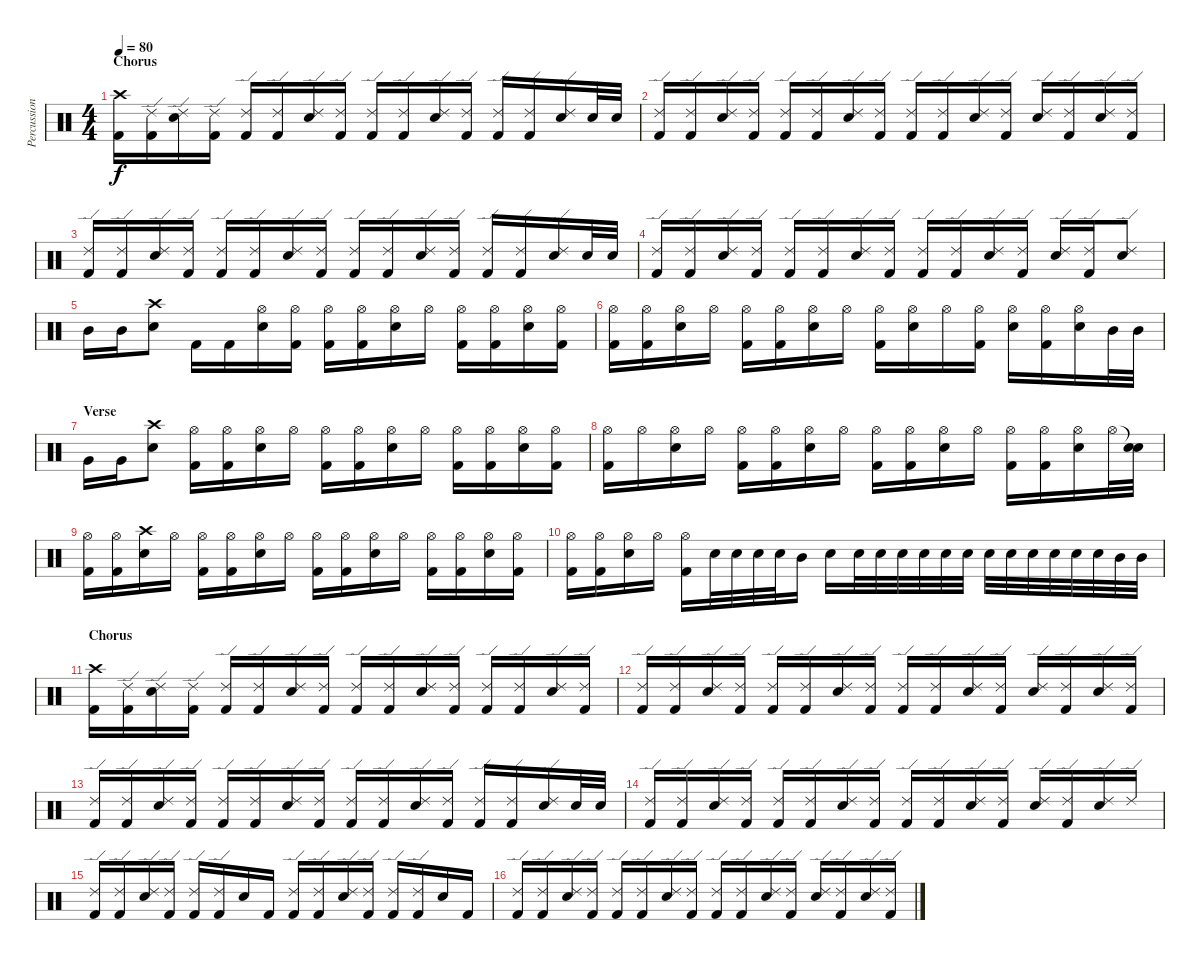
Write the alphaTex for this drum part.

\track ("Percussion" "Percussion") {instrument percussion}
\staff {score}
\articulation defaults
\ts (4 4)
\section ("" "Chorus")
\tempo 80
\clef neutral
\ks c
("Crash high (hit)" "Kick (hit) 2").16{dy f} ("Ride (edge) 2" "Kick (hit) 2").16 ("Ride (edge) 2" "Electric Snare (hit)").16 ("Ride (edge) 2" "Kick (hit) 2").16 ("Ride (edge) 2" "Kick (hit) 2").16 ("Ride (edge) 2" "Kick (hit) 2").16 ("Ride (edge) 2" "Electric Snare (hit)").16 ("Ride (edge) 2" "Kick (hit) 2").16 ("Ride (edge) 2" "Kick (hit) 2").16 ("Ride (edge) 2" "Kick (hit) 2").16 ("Ride (edge) 2" "Electric Snare (hit)").16 ("Ride (edge) 2" "Kick (hit) 2").16 ("Ride (edge) 2" "Kick (hit) 2").16 ("Ride (edge) 2" "Kick (hit) 2").16 ("Ride (edge) 2" "Electric Snare (hit)").16 "Electric Snare (hit)".32 "Electric Snare (hit)".32 |
("Ride (edge) 2" "Kick (hit) 2").16 ("Ride (edge) 2" "Kick (hit) 2").16 ("Ride (edge) 2" "Electric Snare (hit)").16 ("Ride (edge) 2" "Kick (hit) 2").16 ("Ride (edge) 2" "Kick (hit) 2").16 ("Ride (edge) 2" "Kick (hit) 2").16 ("Ride (edge) 2" "Electric Snare (hit)").16 ("Ride (edge) 2" "Kick (hit) 2").16 ("Ride (edge) 2" "Kick (hit) 2").16 ("Ride (edge) 2" "Kick (hit) 2").16 ("Ride (edge) 2" "Electric Snare (hit)").16 ("Ride (edge) 2" "Kick (hit) 2").16 ("Ride (edge) 2" "Electric Snare (hit)").16 ("Ride (edge) 2" "Kick (hit) 2").16 ("Ride (edge) 2" "Electric Snare (hit)").16 ("Ride (edge) 2" "Kick (hit) 2").16 |
("Ride (edge) 2" "Kick (hit) 2").16 ("Ride (edge) 2" "Kick (hit) 2").16 ("Ride (edge) 2" "Electric Snare (hit)").16 ("Ride (edge) 2" "Kick (hit) 2").16 ("Ride (edge) 2" "Kick (hit) 2").16 ("Ride (edge) 2" "Kick (hit) 2").16 ("Ride (edge) 2" "Electric Snare (hit)").16 ("Ride (edge) 2" "Kick (hit) 2").16 ("Ride (edge) 2" "Kick (hit) 2").16 ("Ride (edge) 2" "Kick (hit) 2").16 ("Ride (edge) 2" "Electric Snare (hit)").16 ("Ride (edge) 2" "Kick (hit) 2").16 ("Ride (edge) 2" "Kick (hit) 2").16 ("Ride (edge) 2" "Kick (hit) 2").16 ("Ride (edge) 2" "Electric Snare (hit)").16 "Electric Snare (hit)".32 "Electric Snare (hit)".32 |
("Ride (edge) 2" "Kick (hit) 2").16 ("Ride (edge) 2" "Kick (hit) 2").16 ("Ride (edge) 2" "Electric Snare (hit)").16 ("Ride (edge) 2" "Kick (hit) 2").16 ("Ride (edge) 2" "Kick (hit) 2").16 ("Ride (edge) 2" "Kick (hit) 2").16 ("Ride (edge) 2" "Electric Snare (hit)").16 ("Ride (edge) 2" "Kick (hit) 2").16 ("Ride (edge) 2" "Kick (hit) 2").16 ("Ride (edge) 2" "Kick (hit) 2").16 ("Ride (edge) 2" "Electric Snare (hit)").16 ("Ride (edge) 2" "Kick (hit) 2").16 ("Ride (edge) 2" "Electric Snare (hit)").16 ("Ride (edge) 2" "Kick (hit) 2").16 ("Ride (edge) 2" "Electric Snare (hit)").8 |
"Mid Tom (hit)".16 "Mid Tom (hit)".16 ("Crash high (hit)" "Electric Snare (hit)").8 "Kick (hit) 2".16 "Kick (hit) 2".16 ("Hi-Hat (open)" "Electric Snare (hit)").16 ("Hi-Hat (open)" "Kick (hit) 2").16 ("Hi-Hat (open)" "Kick (hit) 2").16 ("Hi-Hat (open)" "Kick (hit) 2").16 ("Hi-Hat (open)" "Electric Snare (hit)").16 "Hi-Hat (open)".16 ("Hi-Hat (open)" "Kick (hit) 2").16 ("Hi-Hat (open)" "Kick (hit) 2").16 ("Hi-Hat (open)" "Electric Snare (hit)").16 ("Hi-Hat (open)" "Kick (hit) 2").16 |
("Hi-Hat (open)" "Kick (hit) 2").16 ("Hi-Hat (open)" "Kick (hit) 2").16 ("Hi-Hat (open)" "Electric Snare (hit)").16 "Hi-Hat (open)".16 ("Hi-Hat (open)" "Kick (hit) 2").16 ("Hi-Hat (open)" "Kick (hit) 2").16 ("Hi-Hat (open)" "Electric Snare (hit)").16 "Hi-Hat (open)".16 ("Hi-Hat (open)" "Kick (hit) 2").16 ("Hi-Hat (open)" "Electric Snare (hit)").16 "Hi-Hat (open)".16 ("Hi-Hat (open)" "Kick (hit) 2").16 ("Hi-Hat (open)" "Electric Snare (hit)").16 ("Hi-Hat (open)" "Kick (hit) 2").16 ("Hi-Hat (open)" "Electric Snare (hit)").16 "Mid Tom (hit)".32 "Mid Tom (hit)".32 |
\section ("" "Verse")
"Very Low Tom (hit)".16 "Very Low Tom (hit)".16 ("Crash high (hit)" "Electric Snare (hit)").8 ("Hi-Hat (open)" "Kick (hit) 2").16 ("Hi-Hat (open)" "Kick (hit) 2").16 ("Hi-Hat (open)" "Electric Snare (hit)").16 "Hi-Hat (open)".16 ("Hi-Hat (open)" "Kick (hit) 2").16 ("Hi-Hat (open)" "Kick (hit) 2").16 ("Hi-Hat (open)" "Electric Snare (hit)").16 "Hi-Hat (open)".16 ("Hi-Hat (open)" "Kick (hit) 2").16 ("Hi-Hat (open)" "Kick (hit) 2").16 ("Hi-Hat (open)" "Electric Snare (hit)").16 ("Hi-Hat (open)" "Kick (hit) 2").16 |
("Hi-Hat (open)" "Kick (hit) 2").16 "Hi-Hat (open)".16 ("Hi-Hat (open)" "Electric Snare (hit)").16 "Hi-Hat (open)".16 ("Hi-Hat (open)" "Kick (hit) 2").16 ("Hi-Hat (open)" "Kick (hit) 2").16 ("Hi-Hat (open)" "Electric Snare (hit)").16 "Hi-Hat (open)".16 ("Hi-Hat (open)" "Kick (hit) 2").16 ("Hi-Hat (open)" "Kick (hit) 2").16 ("Hi-Hat (open)" "Electric Snare (hit)").16 "Hi-Hat (open)".16 ("Hi-Hat (open)" "Kick (hit) 2").16 ("Hi-Hat (open)" "Kick (hit) 2").16 ("Hi-Hat (open)" "Electric Snare (hit)").16 "Hi-Hat (open)".32 ("Snare (hit)"{t} "Electric Snare (hit)").32 |
("Hi-Hat (open)" "Kick (hit) 2").16 ("Hi-Hat (open)" "Kick (hit) 2").16 ("Crash high (hit)" "Electric Snare (hit)").16 "Hi-Hat (open)".16 ("Hi-Hat (open)" "Kick (hit) 2").16 ("Hi-Hat (open)" "Kick (hit) 2").16 ("Hi-Hat (open)" "Electric Snare (hit)").16 "Hi-Hat (open)".16 ("Hi-Hat (open)" "Kick (hit) 2").16 ("Hi-Hat (open)" "Kick (hit) 2").16 ("Hi-Hat (open)" "Electric Snare (hit)").16 "Hi-Hat (open)".16 ("Hi-Hat (open)" "Kick (hit) 2").16 ("Hi-Hat (open)" "Kick (hit) 2").16 ("Hi-Hat (open)" "Electric Snare (hit)").16 ("Hi-Hat (open)" "Kick (hit) 2").16 |
("Hi-Hat (open)" "Kick (hit) 2").16 ("Hi-Hat (open)" "Kick (hit) 2").16 ("Hi-Hat (open)" "Electric Snare (hit)").16 "Hi-Hat (open)".16 ("Hi-Hat (open)" "Kick (hit) 2").16 "Electric Snare (hit)".32 "Electric Snare (hit)".32 "Electric Snare (hit)".32 "Electric Snare (hit)".32 "Mid Tom (hit)".16 "Electric Snare (hit)".16 "Electric Snare (hit)".32 "Electric Snare (hit)".32 "Electric Snare (hit)".32 "Electric Snare (hit)".32 "Electric Snare (hit)".32 "Electric Snare (hit)".32 "Electric Snare (hit)".32 "Electric Snare (hit)".32 "Electric Snare (hit)".32 "Electric Snare (hit)".32 "Electric Snare (hit)".32 "Electric Snare (hit)".32 "Mid Tom (hit)".32 "Mid Tom (hit)".32 |
\section ("" "Chorus")
("Crash high (hit)" "Kick (hit) 2").16 ("Ride (edge) 2" "Kick (hit) 2").16 ("Ride (edge) 2" "Electric Snare (hit)").16 ("Ride (edge) 2" "Kick (hit) 2").16 ("Ride (edge) 2" "Kick (hit) 2").16 ("Ride (edge) 2" "Kick (hit) 2").16 ("Ride (edge) 2" "Electric Snare (hit)").16 ("Ride (edge) 2" "Kick (hit) 2").16 ("Ride (edge) 2" "Kick (hit) 2").16 ("Ride (edge) 2" "Kick (hit) 2").16 ("Ride (edge) 2" "Electric Snare (hit)").16 ("Ride (edge) 2" "Kick (hit) 2").16 ("Ride (edge) 2" "Kick (hit) 2").16 ("Ride (edge) 2" "Kick (hit) 2").16 ("Ride (edge) 2" "Electric Snare (hit)").16 ("Ride (edge) 2" "Kick (hit) 2").16 |
("Ride (edge) 2" "Kick (hit) 2").16 ("Ride (edge) 2" "Kick (hit) 2").16 ("Ride (edge) 2" "Electric Snare (hit)").16 ("Ride (edge) 2" "Kick (hit) 2").16 ("Ride (edge) 2" "Kick (hit) 2").16 ("Ride (edge) 2" "Kick (hit) 2").16 ("Ride (edge) 2" "Electric Snare (hit)").16 ("Ride (edge) 2" "Kick (hit) 2").16 ("Ride (edge) 2" "Kick (hit) 2").16 ("Ride (edge) 2" "Kick (hit) 2").16 ("Ride (edge) 2" "Electric Snare (hit)").16 ("Ride (edge) 2" "Kick (hit) 2").16 ("Ride (edge) 2" "Electric Snare (hit)").16 ("Ride (edge) 2" "Kick (hit) 2").16 ("Ride (edge) 2" "Electric Snare (hit)").16 ("Ride (edge) 2" "Kick (hit) 2").16 |
("Ride (edge) 2" "Kick (hit) 2").16 ("Ride (edge) 2" "Kick (hit) 2").16 ("Ride (edge) 2" "Electric Snare (hit)").16 ("Ride (edge) 2" "Kick (hit) 2").16 ("Ride (edge) 2" "Kick (hit) 2").16 ("Ride (edge) 2" "Kick (hit) 2").16 ("Ride (edge) 2" "Electric Snare (hit)").16 ("Ride (edge) 2" "Kick (hit) 2").16 ("Ride (edge) 2" "Kick (hit) 2").16 ("Ride (edge) 2" "Kick (hit) 2").16 ("Ride (edge) 2" "Electric Snare (hit)").16 ("Ride (edge) 2" "Kick (hit) 2").16 ("Ride (edge) 2" "Kick (hit) 2").16 ("Ride (edge) 2" "Kick (hit) 2").16 ("Ride (edge) 2" "Electric Snare (hit)").16 "Electric Snare (hit)".32 "Electric Snare (hit)".32 |
("Ride (edge) 2" "Kick (hit) 2").16 ("Ride (edge) 2" "Kick (hit) 2").16 ("Ride (edge) 2" "Electric Snare (hit)").16 ("Ride (edge) 2" "Kick (hit) 2").16 ("Ride (edge) 2" "Kick (hit) 2").16 ("Ride (edge) 2" "Kick (hit) 2").16 ("Ride (edge) 2" "Electric Snare (hit)").16 ("Ride (edge) 2" "Kick (hit) 2").16 ("Ride (edge) 2" "Kick (hit) 2").16 ("Ride (edge) 2" "Kick (hit) 2").16 ("Ride (edge) 2" "Electric Snare (hit)").16 ("Ride (edge) 2" "Kick (hit) 2").16 ("Ride (edge) 2" "Electric Snare (hit)").16 ("Ride (edge) 2" "Kick (hit) 2").16 ("Ride (edge) 2" "Electric Snare (hit)").16 "Ride (edge) 2".16 |
("Ride (edge) 2" "Kick (hit) 2").16 ("Ride (edge) 2" "Kick (hit) 2").16 ("Ride (edge) 2" "Electric Snare (hit)").16 ("Ride (edge) 2" "Kick (hit) 2").16 ("Ride (edge) 2" "Kick (hit) 2").16 ("Ride (edge) 2" "Kick (hit) 2").16 "Electric Snare (hit)".16 "Kick (hit) 2".16 ("Ride (edge) 2" "Kick (hit) 2").16 ("Ride (edge) 2" "Kick (hit) 2").16 ("Ride (edge) 2" "Electric Snare (hit)").16 ("Ride (edge) 2" "Kick (hit) 2").16 ("Ride (edge) 2" "Kick (hit) 2").16 ("Ride (edge) 2" "Kick (hit) 2").16 "Electric Snare (hit)".16 "Kick (hit) 2".16 |
("Ride (edge) 2" "Kick (hit) 2").16 ("Ride (edge) 2" "Kick (hit) 2").16 ("Ride (edge) 2" "Electric Snare (hit)").16 ("Ride (edge) 2" "Kick (hit) 2").16 ("Ride (edge) 2" "Kick (hit) 2").16 ("Ride (edge) 2" "Kick (hit) 2").16 ("Ride (edge) 2" "Electric Snare (hit)").16 ("Ride (edge) 2" "Kick (hit) 2").16 ("Ride (edge) 2" "Kick (hit) 2").16 ("Ride (edge) 2" "Kick (hit) 2").16 ("Ride (edge) 2" "Electric Snare (hit)").16 ("Ride (edge) 2" "Kick (hit) 2").16 ("Ride (edge) 2" "Electric Snare (hit)").16 ("Ride (edge) 2" "Kick (hit) 2").16 ("Ride (edge) 2" "Electric Snare (hit)").16 ("Ride (edge) 2" "Kick (hit) 2").16
